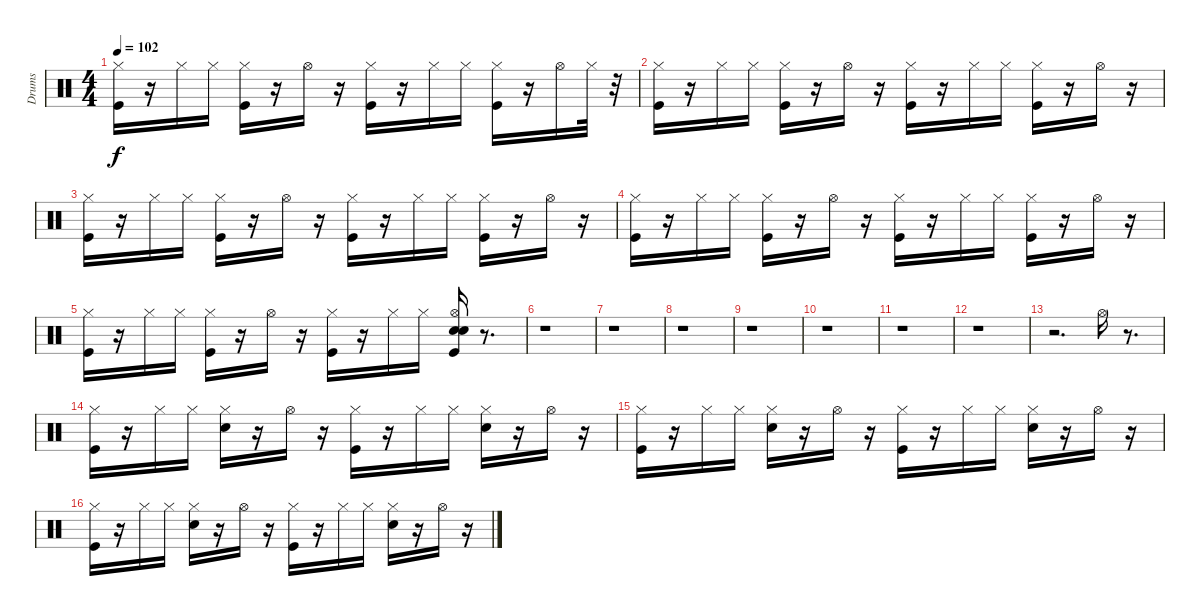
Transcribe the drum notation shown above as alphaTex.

\track ("Drums" "Drums") {instrument percussion}
\staff {score}
\articulation defaults
\ts (4 4)
\tempo 102
\clef neutral
\ks c
("Hi-Hat (closed)" "Kick (hit)").16{dy f} r.16 "Hi-Hat (closed)".16 "Hi-Hat (closed)".16 ("Hi-Hat (closed)" "Kick (hit)").16 r.16 "Hi-Hat (open)".16 r.16 ("Hi-Hat (closed)" "Kick (hit)").16 r.16 "Hi-Hat (closed)".16 "Hi-Hat (closed)".16 ("Hi-Hat (closed)" "Kick (hit)").16 r.16 "Hi-Hat (open)".16 "Hi-Hat (closed)".32 r.32 |
("Hi-Hat (closed)" "Kick (hit)").16 r.16 "Hi-Hat (closed)".16 "Hi-Hat (closed)".16 ("Hi-Hat (closed)" "Kick (hit)").16 r.16 "Hi-Hat (open)".16 r.16 ("Hi-Hat (closed)" "Kick (hit)").16 r.16 "Hi-Hat (closed)".16 "Hi-Hat (closed)".16 ("Hi-Hat (closed)" "Kick (hit)").16 r.16 "Hi-Hat (open)".16 r.16 |
("Hi-Hat (closed)" "Kick (hit)").16 r.16 "Hi-Hat (closed)".16 "Hi-Hat (closed)".16 ("Hi-Hat (closed)" "Kick (hit)").16 r.16 "Hi-Hat (open)".16 r.16 ("Hi-Hat (closed)" "Kick (hit)").16 r.16 "Hi-Hat (closed)".16 "Hi-Hat (closed)".16 ("Hi-Hat (closed)" "Kick (hit)").16 r.16 "Hi-Hat (open)".16 r.16 |
("Hi-Hat (closed)" "Kick (hit)").16 r.16 "Hi-Hat (closed)".16 "Hi-Hat (closed)".16 ("Hi-Hat (closed)" "Kick (hit)").16 r.16 "Hi-Hat (open)".16 r.16 ("Hi-Hat (closed)" "Kick (hit)").16 r.16 "Hi-Hat (closed)".16 "Hi-Hat (closed)".16 ("Hi-Hat (closed)" "Kick (hit)").16 r.16 "Hi-Hat (open)".16 r.16 |
("Hi-Hat (closed)" "Kick (hit)").16 r.16 "Hi-Hat (closed)".16 "Hi-Hat (closed)".16 ("Hi-Hat (closed)" "Kick (hit)").16 r.16 "Hi-Hat (open)".16 r.16 ("Hi-Hat (closed)" "Kick (hit)").16 r.16 "Hi-Hat (closed)".16 "Hi-Hat (closed)".16 ("Snare (hit) 2" "Hi-Hat (open)" "Hand Clap (hit)" "Kick (hit)").16 r.8{d} |
r.1 |
r.1 |
r.1 |
r.1 |
r.1 |
r.1 |
r.1 |
r.2{d} "Hi-Hat (open)".16 r.8{d} |
("Hi-Hat (closed)" "Kick (hit)").16 r.16 "Hi-Hat (closed)".16 "Hi-Hat (closed)".16 ("Hi-Hat (closed)" "Snare (hit) 2").16 r.16 "Hi-Hat (open)".16 r.16 ("Hi-Hat (closed)" "Kick (hit)").16 r.16 "Hi-Hat (closed)".16 "Hi-Hat (closed)".16 ("Hi-Hat (closed)" "Snare (hit) 2").16 r.16 "Hi-Hat (open)".16 r.16 |
("Hi-Hat (closed)" "Kick (hit)").16 r.16 "Hi-Hat (closed)".16 "Hi-Hat (closed)".16 ("Snare (hit) 2" "Hi-Hat (closed)").16 r.16 "Hi-Hat (open)".16 r.16 ("Hi-Hat (closed)" "Kick (hit)").16 r.16 "Hi-Hat (closed)".16 "Hi-Hat (closed)".16 ("Snare (hit) 2" "Hi-Hat (closed)").16 r.16 "Hi-Hat (open)".16 r.16 |
("Hi-Hat (closed)" "Kick (hit)").16 r.16 "Hi-Hat (closed)".16 "Hi-Hat (closed)".16 ("Hi-Hat (closed)" "Snare (hit) 2").16 r.16 "Hi-Hat (open)".16 r.16 ("Hi-Hat (closed)" "Kick (hit)").16 r.16 "Hi-Hat (closed)".16 "Hi-Hat (closed)".16 ("Hi-Hat (closed)" "Snare (hit) 2").16 r.16 "Hi-Hat (open)".16 r.16
